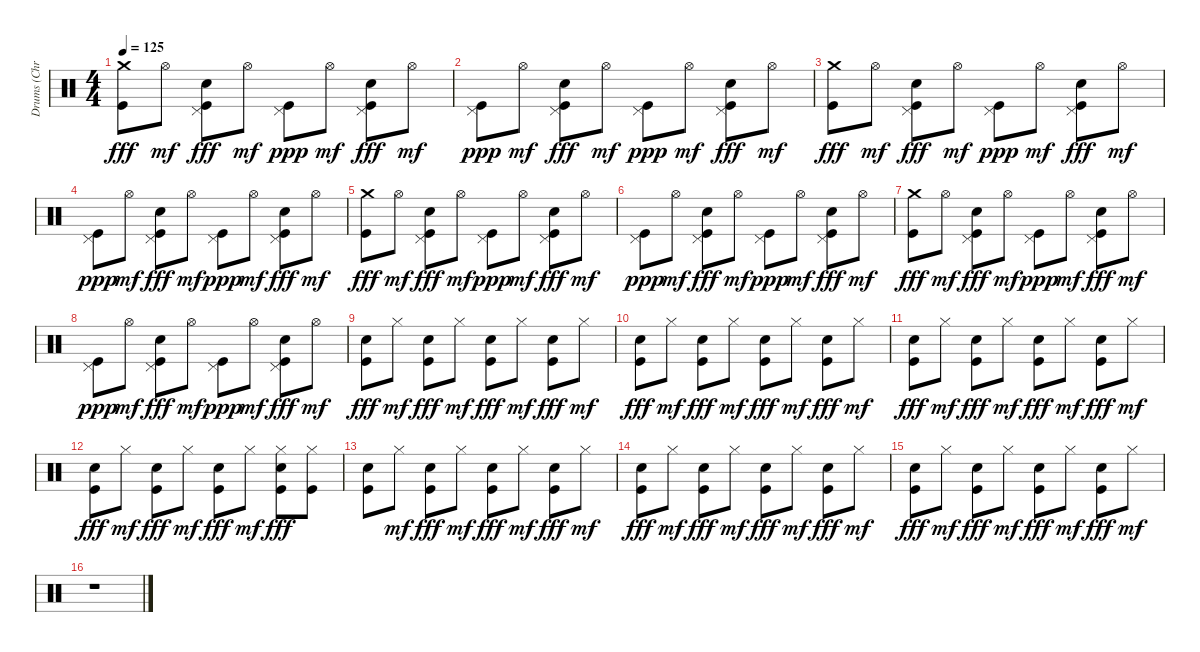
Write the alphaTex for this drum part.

\track ("Drums (Christoph)" "Drums (Chr") {instrument percussion}
\staff {score}
\articulation defaults
\ts (4 4)
\tempo 125
\clef neutral
\ks c
("Kick (hit)" "Crash medium (hit)").8{dy fff} "Hi-Hat (open)".8{dy mf} ("Kick (hit)" "Pedal Hi-Hat (hit)" "Electric Snare (hit)").8{dy fff} "Hi-Hat (open)".8{dy mf} ("Kick (hit)" "Pedal Hi-Hat (hit)").8{dy ppp} "Hi-Hat (open)".8{dy mf} ("Kick (hit)" "Pedal Hi-Hat (hit)" "Electric Snare (hit)").8{dy fff} "Hi-Hat (open)".8{dy mf} |
("Kick (hit)" "Pedal Hi-Hat (hit)").8{dy ppp} "Hi-Hat (open)".8{dy mf} ("Kick (hit)" "Pedal Hi-Hat (hit)" "Electric Snare (hit)").8{dy fff} "Hi-Hat (open)".8{dy mf} ("Kick (hit)" "Pedal Hi-Hat (hit)").8{dy ppp} "Hi-Hat (open)".8{dy mf} ("Kick (hit)" "Pedal Hi-Hat (hit)" "Electric Snare (hit)").8{dy fff} "Hi-Hat (open)".8{dy mf} |
("Kick (hit)" "Crash medium (hit)").8{dy fff} "Hi-Hat (open)".8{dy mf} ("Kick (hit)" "Pedal Hi-Hat (hit)" "Electric Snare (hit)").8{dy fff} "Hi-Hat (open)".8{dy mf} ("Kick (hit)" "Pedal Hi-Hat (hit)").8{dy ppp} "Hi-Hat (open)".8{dy mf} ("Kick (hit)" "Pedal Hi-Hat (hit)" "Electric Snare (hit)").8{dy fff} "Hi-Hat (open)".8{dy mf} |
("Kick (hit)" "Pedal Hi-Hat (hit)").8{dy ppp} "Hi-Hat (open)".8{dy mf} ("Kick (hit)" "Pedal Hi-Hat (hit)" "Electric Snare (hit)").8{dy fff} "Hi-Hat (open)".8{dy mf} ("Kick (hit)" "Pedal Hi-Hat (hit)").8{dy ppp} "Hi-Hat (open)".8{dy mf} ("Kick (hit)" "Pedal Hi-Hat (hit)" "Electric Snare (hit)").8{dy fff} "Hi-Hat (open)".8{dy mf} |
("Kick (hit)" "Crash medium (hit)").8{dy fff} "Hi-Hat (open)".8{dy mf} ("Kick (hit)" "Pedal Hi-Hat (hit)" "Electric Snare (hit)").8{dy fff} "Hi-Hat (open)".8{dy mf} ("Kick (hit)" "Pedal Hi-Hat (hit)").8{dy ppp} "Hi-Hat (open)".8{dy mf} ("Kick (hit)" "Pedal Hi-Hat (hit)" "Electric Snare (hit)").8{dy fff} "Hi-Hat (open)".8{dy mf} |
("Kick (hit)" "Pedal Hi-Hat (hit)").8{dy ppp} "Hi-Hat (open)".8{dy mf} ("Kick (hit)" "Pedal Hi-Hat (hit)" "Electric Snare (hit)").8{dy fff} "Hi-Hat (open)".8{dy mf} ("Kick (hit)" "Pedal Hi-Hat (hit)").8{dy ppp} "Hi-Hat (open)".8{dy mf} ("Kick (hit)" "Pedal Hi-Hat (hit)" "Electric Snare (hit)").8{dy fff} "Hi-Hat (open)".8{dy mf} |
("Kick (hit)" "Crash medium (hit)").8{dy fff} "Hi-Hat (open)".8{dy mf} ("Kick (hit)" "Pedal Hi-Hat (hit)" "Electric Snare (hit)").8{dy fff} "Hi-Hat (open)".8{dy mf} ("Kick (hit)" "Pedal Hi-Hat (hit)").8{dy ppp} "Hi-Hat (open)".8{dy mf} ("Kick (hit)" "Pedal Hi-Hat (hit)" "Electric Snare (hit)").8{dy fff} "Hi-Hat (open)".8{dy mf} |
("Kick (hit)" "Pedal Hi-Hat (hit)").8{dy ppp} "Hi-Hat (open)".8{dy mf} ("Kick (hit)" "Pedal Hi-Hat (hit)" "Electric Snare (hit)").8{dy fff} "Hi-Hat (open)".8{dy mf} ("Kick (hit)" "Pedal Hi-Hat (hit)").8{dy ppp} "Hi-Hat (open)".8{dy mf} ("Kick (hit)" "Pedal Hi-Hat (hit)" "Electric Snare (hit)").8{dy fff} "Hi-Hat (open)".8{dy mf} |
("Electric Snare (hit)" "Kick (hit)").8{dy fff} "Hi-Hat (closed)".8{dy mf} ("Electric Snare (hit)" "Kick (hit)").8{dy fff} "Hi-Hat (closed)".8{dy mf} ("Electric Snare (hit)" "Kick (hit)").8{dy fff} "Hi-Hat (closed)".8{dy mf} ("Electric Snare (hit)" "Kick (hit)").8{dy fff} "Hi-Hat (closed)".8{dy mf} |
("Electric Snare (hit)" "Kick (hit)").8{dy fff} "Hi-Hat (closed)".8{dy mf} ("Electric Snare (hit)" "Kick (hit)").8{dy fff} "Hi-Hat (closed)".8{dy mf} ("Electric Snare (hit)" "Kick (hit)").8{dy fff} "Hi-Hat (closed)".8{dy mf} ("Electric Snare (hit)" "Kick (hit)").8{dy fff} "Hi-Hat (closed)".8{dy mf} |
("Electric Snare (hit)" "Kick (hit)").8{dy fff} "Hi-Hat (closed)".8{dy mf} ("Electric Snare (hit)" "Kick (hit)").8{dy fff} "Hi-Hat (closed)".8{dy mf} ("Electric Snare (hit)" "Kick (hit)").8{dy fff} "Hi-Hat (closed)".8{dy mf} ("Electric Snare (hit)" "Kick (hit)").8{dy fff} "Hi-Hat (closed)".8{dy mf} |
("Electric Snare (hit)" "Kick (hit)").8{dy fff} "Hi-Hat (closed)".8{dy mf} ("Electric Snare (hit)" "Kick (hit)").8{dy fff} "Hi-Hat (closed)".8{dy mf} ("Electric Snare (hit)" "Kick (hit)").8{dy fff} "Hi-Hat (closed)".8{dy mf} ("Electric Snare (hit)" "Hi-Hat (closed)" "Kick (hit)").8{dy fff} ("Hi-Hat (closed)" "Kick (hit)").8 |
("Kick (hit)" "Electric Snare (hit)").8 "Hi-Hat (closed)".8{dy mf} ("Kick (hit)" "Electric Snare (hit)").8{dy fff} "Hi-Hat (closed)".8{dy mf} ("Kick (hit)" "Electric Snare (hit)").8{dy fff} "Hi-Hat (closed)".8{dy mf} ("Electric Snare (hit)" "Kick (hit)").8{dy fff} "Hi-Hat (closed)".8{dy mf} |
("Electric Snare (hit)" "Kick (hit)").8{dy fff} "Hi-Hat (closed)".8{dy mf} ("Electric Snare (hit)" "Kick (hit)").8{dy fff} "Hi-Hat (closed)".8{dy mf} ("Electric Snare (hit)" "Kick (hit)").8{dy fff} "Hi-Hat (closed)".8{dy mf} ("Electric Snare (hit)" "Kick (hit)").8{dy fff} "Hi-Hat (closed)".8{dy mf} |
("Electric Snare (hit)" "Kick (hit)").8{dy fff} "Hi-Hat (closed)".8{dy mf} ("Electric Snare (hit)" "Kick (hit)").8{dy fff} "Hi-Hat (closed)".8{dy mf} ("Electric Snare (hit)" "Kick (hit)").8{dy fff} "Hi-Hat (closed)".8{dy mf} ("Electric Snare (hit)" "Kick (hit)").8{dy fff} "Hi-Hat (closed)".8{dy mf} |
r.1
